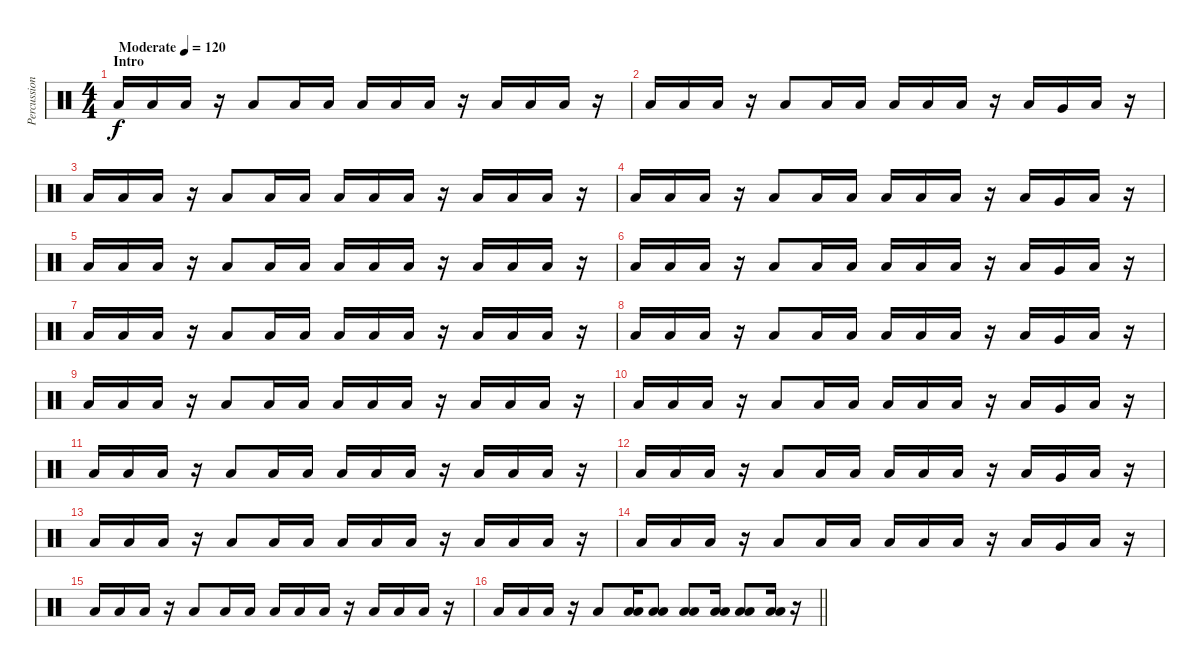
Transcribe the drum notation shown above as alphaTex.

\track ("Percussions" "Percussion") {instrument percussion}
\staff {score}
\articulation defaults
\ts (4 4)
\section ("" "Intro")
\tempo (120 "Moderate")
\clef neutral
\ks c "Low Floor Tom (hit)".16{dy f} "Low Floor Tom (hit)".16 "Low Floor Tom (hit)".16
r.16 "Low Floor Tom (hit)".8 "Low Floor Tom (hit)".16 "Low Floor Tom (hit)".16 "Low Floor Tom (hit)".16 "Low Floor Tom (hit)".16 "Low Floor Tom (hit)".16 r.16 "Low Floor Tom (hit)".16 "Low Floor Tom (hit)".16 "Low Floor Tom (hit)".16 r.16 |
"Low Floor Tom (hit)".16 "Low Floor Tom (hit)".16 "Low Floor Tom (hit)".16 r.16 "Low Floor Tom (hit)".8 "Low Floor Tom (hit)".16 "Low Floor Tom (hit)".16 "Low Floor Tom (hit)".16 "Low Floor Tom (hit)".16 "Low Floor Tom (hit)".16 r.16 "Low Floor Tom (hit)".16 "Very Low Tom (hit)".16 "Low Floor Tom (hit)".16 r.16 |
"Low Floor Tom (hit)".16 "Low Floor Tom (hit)".16 "Low Floor Tom (hit)".16 r.16 "Low Floor Tom (hit)".8 "Low Floor Tom (hit)".16 "Low Floor Tom (hit)".16 "Low Floor Tom (hit)".16 "Low Floor Tom (hit)".16 "Low Floor Tom (hit)".16 r.16 "Low Floor Tom (hit)".16 "Low Floor Tom (hit)".16 "Low Floor Tom (hit)".16 r.16 |
"Low Floor Tom (hit)".16 "Low Floor Tom (hit)".16 "Low Floor Tom (hit)".16 r.16 "Low Floor Tom (hit)".8 "Low Floor Tom (hit)".16 "Low Floor Tom (hit)".16 "Low Floor Tom (hit)".16 "Low Floor Tom (hit)".16 "Low Floor Tom (hit)".16 r.16 "Low Floor Tom (hit)".16 "Very Low Tom (hit)".16 "Low Floor Tom (hit)".16 r.16 |
"Low Floor Tom (hit)".16 "Low Floor Tom (hit)".16 "Low Floor Tom (hit)".16 r.16 "Low Floor Tom (hit)".8 "Low Floor Tom (hit)".16 "Low Floor Tom (hit)".16 "Low Floor Tom (hit)".16 "Low Floor Tom (hit)".16 "Low Floor Tom (hit)".16 r.16 "Low Floor Tom (hit)".16 "Low Floor Tom (hit)".16 "Low Floor Tom (hit)".16 r.16 |
"Low Floor Tom (hit)".16 "Low Floor Tom (hit)".16 "Low Floor Tom (hit)".16 r.16 "Low Floor Tom (hit)".8 "Low Floor Tom (hit)".16 "Low Floor Tom (hit)".16 "Low Floor Tom (hit)".16 "Low Floor Tom (hit)".16 "Low Floor Tom (hit)".16 r.16 "Low Floor Tom (hit)".16 "Very Low Tom (hit)".16 "Low Floor Tom (hit)".16 r.16 |
"Low Floor Tom (hit)".16 "Low Floor Tom (hit)".16 "Low Floor Tom (hit)".16 r.16 "Low Floor Tom (hit)".8 "Low Floor Tom (hit)".16 "Low Floor Tom (hit)".16 "Low Floor Tom (hit)".16 "Low Floor Tom (hit)".16 "Low Floor Tom (hit)".16 r.16 "Low Floor Tom (hit)".16 "Low Floor Tom (hit)".16 "Low Floor Tom (hit)".16 r.16 |
"Low Floor Tom (hit)".16 "Low Floor Tom (hit)".16 "Low Floor Tom (hit)".16 r.16 "Low Floor Tom (hit)".8 "Low Floor Tom (hit)".16 "Low Floor Tom (hit)".16 "Low Floor Tom (hit)".16 "Low Floor Tom (hit)".16 "Low Floor Tom (hit)".16 r.16 "Low Floor Tom (hit)".16 "Very Low Tom (hit)".16 "Low Floor Tom (hit)".16 r.16 |
"Low Floor Tom (hit)".16 "Low Floor Tom (hit)".16 "Low Floor Tom (hit)".16 r.16 "Low Floor Tom (hit)".8 "Low Floor Tom (hit)".16 "Low Floor Tom (hit)".16 "Low Floor Tom (hit)".16 "Low Floor Tom (hit)".16 "Low Floor Tom (hit)".16 r.16 "Low Floor Tom (hit)".16 "Low Floor Tom (hit)".16 "Low Floor Tom (hit)".16 r.16 |
"Low Floor Tom (hit)".16 "Low Floor Tom (hit)".16 "Low Floor Tom (hit)".16 r.16 "Low Floor Tom (hit)".8 "Low Floor Tom (hit)".16 "Low Floor Tom (hit)".16 "Low Floor Tom (hit)".16 "Low Floor Tom (hit)".16 "Low Floor Tom (hit)".16 r.16 "Low Floor Tom (hit)".16 "Very Low Tom (hit)".16 "Low Floor Tom (hit)".16 r.16 |
"Low Floor Tom (hit)".16 "Low Floor Tom (hit)".16 "Low Floor Tom (hit)".16 r.16 "Low Floor Tom (hit)".8 "Low Floor Tom (hit)".16 "Low Floor Tom (hit)".16 "Low Floor Tom (hit)".16 "Low Floor Tom (hit)".16 "Low Floor Tom (hit)".16 r.16 "Low Floor Tom (hit)".16 "Low Floor Tom (hit)".16 "Low Floor Tom (hit)".16 r.16 |
"Low Floor Tom (hit)".16 "Low Floor Tom (hit)".16 "Low Floor Tom (hit)".16 r.16 "Low Floor Tom (hit)".8 "Low Floor Tom (hit)".16 "Low Floor Tom (hit)".16 "Low Floor Tom (hit)".16 "Low Floor Tom (hit)".16 "Low Floor Tom (hit)".16 r.16 "Low Floor Tom (hit)".16 "Very Low Tom (hit)".16 "Low Floor Tom (hit)".16 r.16 |
"Low Floor Tom (hit)".16 "Low Floor Tom (hit)".16 "Low Floor Tom (hit)".16 r.16 "Low Floor Tom (hit)".8 "Low Floor Tom (hit)".16 "Low Floor Tom (hit)".16 "Low Floor Tom (hit)".16 "Low Floor Tom (hit)".16 "Low Floor Tom (hit)".16 r.16 "Low Floor Tom (hit)".16 "Low Floor Tom (hit)".16 "Low Floor Tom (hit)".16 r.16 |
"Low Floor Tom (hit)".16 "Low Floor Tom (hit)".16 "Low Floor Tom (hit)".16 r.16 "Low Floor Tom (hit)".8 "Low Floor Tom (hit)".16 "Low Floor Tom (hit)".16 "Low Floor Tom (hit)".16 "Low Floor Tom (hit)".16 "Low Floor Tom (hit)".16 r.16 "Low Floor Tom (hit)".16 "Very Low Tom (hit)".16 "Low Floor Tom (hit)".16 r.16 |
"Low Floor Tom (hit)".16 "Low Floor Tom (hit)".16 "Low Floor Tom (hit)".16 r.16 "Low Floor Tom (hit)".8 "Low Floor Tom (hit)".16 "Low Floor Tom (hit)".16 "Low Floor Tom (hit)".16 "Low Floor Tom (hit)".16 "Low Floor Tom (hit)".16 r.16 "Low Floor Tom (hit)".16 "Low Floor Tom (hit)".16 "Low Floor Tom (hit)".16 r.16 |
\barLineRight lightlight "Low Floor Tom (hit)".16 "Low Floor Tom (hit)".16 "Low Floor Tom (hit)".16
r.16 "Low Floor Tom (hit)".8 ("Low Floor Tom (hit)" "Low Floor Tom (hit)").16 ("Low Floor Tom (hit)" "Low Floor Tom (hit)").8 ("Low Floor Tom (hit)" "Low Floor Tom (hit)").8 ("Low Floor Tom (hit)" "Low Floor Tom (hit)").16 ("Low Floor Tom (hit)" "Low Floor Tom (hit)").8 ("Low Floor Tom (hit)" "Low Floor Tom (hit)").16 r.16
